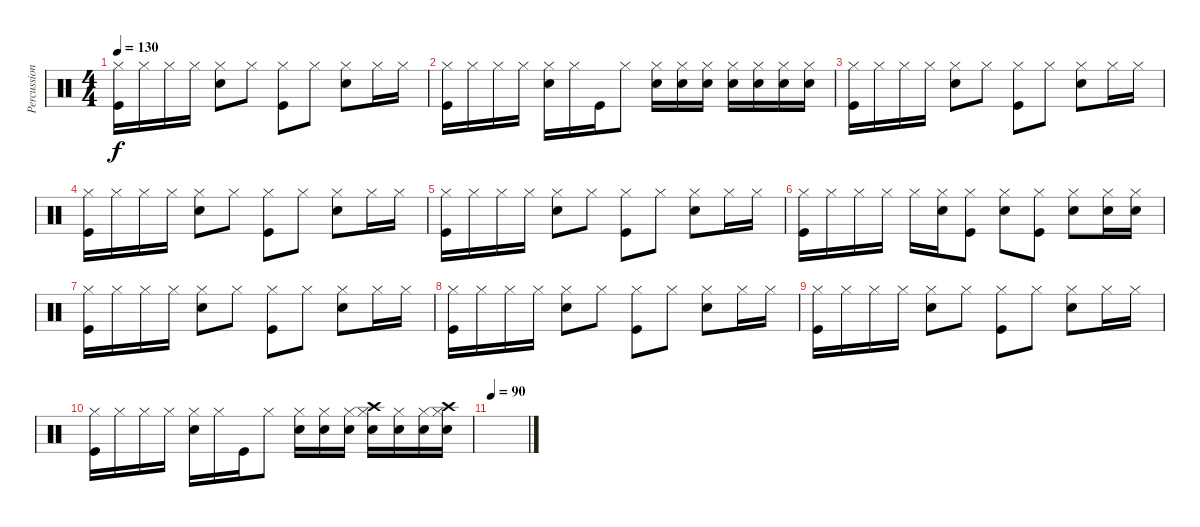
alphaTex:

\track ("Percussions" "Percussion") {instrument percussion}
\staff {score}
\articulation defaults
\ts (4 4)
\tempo 130
\clef neutral
\ks c
("Hi-Hat (closed)" "Kick (hit)").16{dy f} "Hi-Hat (closed)".16 "Hi-Hat (closed)".16 "Hi-Hat (closed)".16 ("Hi-Hat (closed)" "Snare (hit) 2").8 "Hi-Hat (closed)".8 ("Hi-Hat (closed)" "Kick (hit)").8 "Hi-Hat (closed)".8 ("Hi-Hat (closed)" "Snare (hit) 2").8 "Hi-Hat (closed)".16 "Hi-Hat (closed)".16 |
("Hi-Hat (closed)" "Kick (hit)").16 "Hi-Hat (closed)".16 "Hi-Hat (closed)".16 "Hi-Hat (closed)".16 ("Hi-Hat (closed)" "Snare (hit) 2").16 "Hi-Hat (closed)".16 "Kick (hit)".16 "Hi-Hat (closed)".8 ("Hi-Hat (closed)" "Snare (hit) 2").16 ("Hi-Hat (closed)" "Snare (hit) 2").16 ("Hi-Hat (closed)" "Snare (hit) 2").16 ("Hi-Hat (closed)" "Snare (hit) 2").16 ("Hi-Hat (closed)" "Snare (hit) 2").16 ("Hi-Hat (closed)" "Snare (hit) 2").16 ("Hi-Hat (closed)" "Snare (hit) 2").16 |
("Hi-Hat (closed)" "Kick (hit)").16 "Hi-Hat (closed)".16 "Hi-Hat (closed)".16 "Hi-Hat (closed)".16 ("Hi-Hat (closed)" "Snare (hit) 2").8 "Hi-Hat (closed)".8 ("Hi-Hat (closed)" "Kick (hit)").8 "Hi-Hat (closed)".8 ("Hi-Hat (closed)" "Snare (hit) 2").8 "Hi-Hat (closed)".16 "Hi-Hat (closed)".16 |
("Hi-Hat (closed)" "Kick (hit)").16 "Hi-Hat (closed)".16 "Hi-Hat (closed)".16 "Hi-Hat (closed)".16 ("Hi-Hat (closed)" "Snare (hit) 2").8 "Hi-Hat (closed)".8 ("Hi-Hat (closed)" "Kick (hit)").8 "Hi-Hat (closed)".8 ("Hi-Hat (closed)" "Snare (hit) 2").8 "Hi-Hat (closed)".16 "Hi-Hat (closed)".16 |
("Hi-Hat (closed)" "Kick (hit)").16 "Hi-Hat (closed)".16 "Hi-Hat (closed)".16 "Hi-Hat (closed)".16 ("Hi-Hat (closed)" "Snare (hit) 2").8 "Hi-Hat (closed)".8 ("Hi-Hat (closed)" "Kick (hit)").8 "Hi-Hat (closed)".8 ("Hi-Hat (closed)" "Snare (hit) 2").8 "Hi-Hat (closed)".16 "Hi-Hat (closed)".16 |
("Hi-Hat (closed)" "Kick (hit)").16 "Hi-Hat (closed)".16 "Hi-Hat (closed)".16 "Hi-Hat (closed)".16 "Hi-Hat (closed)".16 ("Hi-Hat (closed)" "Snare (hit) 2").16 ("Hi-Hat (closed)" "Kick (hit)").8 ("Hi-Hat (closed)" "Snare (hit) 2").8 ("Hi-Hat (closed)" "Kick (hit)").8 ("Hi-Hat (closed)" "Snare (hit) 2").8 ("Hi-Hat (closed)" "Snare (hit) 2").16 ("Hi-Hat (closed)" "Snare (hit) 2").16 |
("Hi-Hat (closed)" "Kick (hit)").16 "Hi-Hat (closed)".16 "Hi-Hat (closed)".16 "Hi-Hat (closed)".16 ("Hi-Hat (closed)" "Snare (hit) 2").8 "Hi-Hat (closed)".8 ("Hi-Hat (closed)" "Kick (hit)").8 "Hi-Hat (closed)".8 ("Hi-Hat (closed)" "Snare (hit) 2").8 "Hi-Hat (closed)".16 "Hi-Hat (closed)".16 |
("Hi-Hat (closed)" "Kick (hit)").16 "Hi-Hat (closed)".16 "Hi-Hat (closed)".16 "Hi-Hat (closed)".16 ("Hi-Hat (closed)" "Snare (hit) 2").8 "Hi-Hat (closed)".8 ("Hi-Hat (closed)" "Kick (hit)").8 "Hi-Hat (closed)".8 ("Hi-Hat (closed)" "Snare (hit) 2").8 "Hi-Hat (closed)".16 "Hi-Hat (closed)".16 |
("Hi-Hat (closed)" "Kick (hit)").16 "Hi-Hat (closed)".16 "Hi-Hat (closed)".16 "Hi-Hat (closed)".16 ("Hi-Hat (closed)" "Snare (hit) 2").8 "Hi-Hat (closed)".8 ("Hi-Hat (closed)" "Kick (hit)").8 "Hi-Hat (closed)".8 ("Hi-Hat (closed)" "Snare (hit) 2").8 "Hi-Hat (closed)".16 "Hi-Hat (closed)".16 |
("Hi-Hat (closed)" "Kick (hit)").16 "Hi-Hat (closed)".16 "Hi-Hat (closed)".16 "Hi-Hat (closed)".16 ("Hi-Hat (closed)" "Snare (hit) 2").16 "Hi-Hat (closed)".16 "Kick (hit)".16 "Hi-Hat (closed)".8 ("Hi-Hat (closed)" "Snare (hit) 2").16 ("Hi-Hat (closed)" "Snare (hit) 2").16 ("Hi-Hat (closed)" "Snare (hit) 2").16 ("Hi-Hat (closed)" "Snare (hit) 2" "Crash high (hit)").16 ("Hi-Hat (closed)" "Snare (hit) 2").16 ("Hi-Hat (closed)" "Snare (hit) 2").16 ("Hi-Hat (closed)" "Snare (hit) 2" "Crash high (hit)").16 |
\tempo 90
